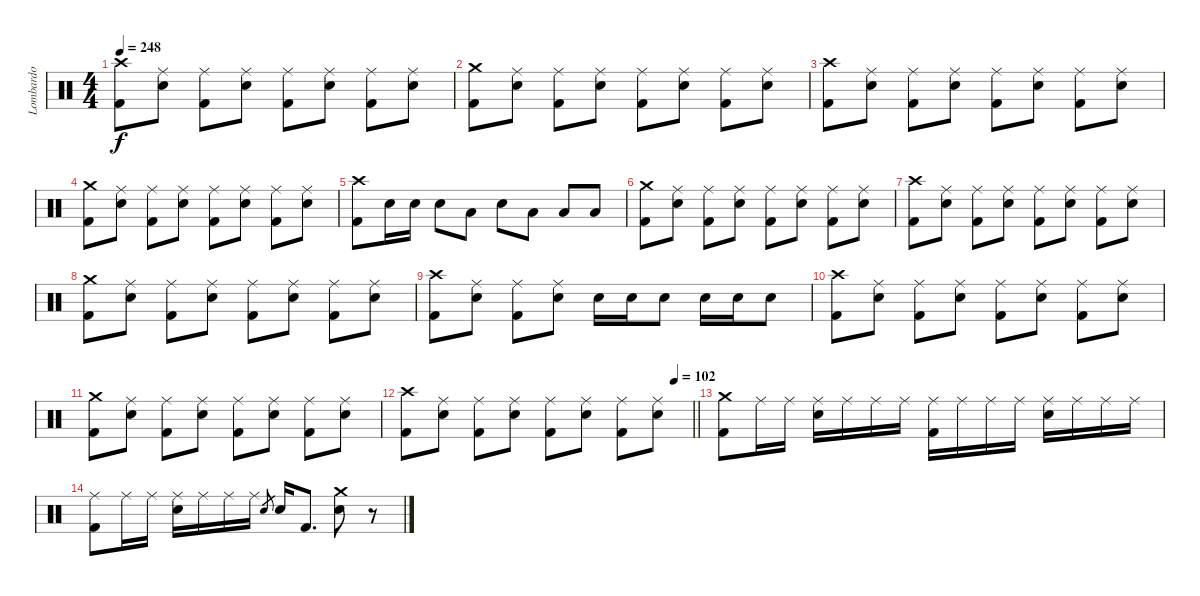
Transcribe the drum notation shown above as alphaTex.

\track ("Lombardo" "Lombardo") {instrument percussion}
\staff {score}
\articulation defaults
\ts (4 4)
\tempo 248
\clef neutral
\ks c
("Crash high (hit)" "Kick (hit) 2").8{dy f} ("Ride (middle)" "Snare (hit) 2").8 ("Ride (middle)" "Kick (hit) 2").8 ("Ride (middle)" "Snare (hit) 2").8 ("Ride (middle)" "Kick (hit) 2").8 ("Ride (middle)" "Snare (hit) 2").8 ("Ride (middle)" "Kick (hit) 2").8 ("Ride (middle)" "Snare (hit) 2").8 |
("Crash medium (hit)" "Kick (hit) 2").8 ("Ride (middle)" "Snare (hit) 2").8 ("Ride (middle)" "Kick (hit) 2").8 ("Ride (middle)" "Snare (hit) 2").8 ("Ride (middle)" "Kick (hit) 2").8 ("Ride (middle)" "Snare (hit) 2").8 ("Ride (middle)" "Kick (hit) 2").8 ("Ride (middle)" "Snare (hit) 2").8 |
("Crash high (hit)" "Kick (hit) 2").8 ("Ride (middle)" "Snare (hit) 2").8 ("Ride (middle)" "Kick (hit) 2").8 ("Ride (middle)" "Snare (hit) 2").8 ("Ride (middle)" "Kick (hit) 2").8 ("Ride (middle)" "Snare (hit) 2").8 ("Ride (middle)" "Kick (hit) 2").8 ("Ride (middle)" "Snare (hit) 2").8 |
("Crash medium (hit)" "Kick (hit) 2").8 ("Ride (middle)" "Snare (hit) 2").8 ("Ride (middle)" "Kick (hit) 2").8 ("Ride (middle)" "Snare (hit) 2").8 ("Ride (middle)" "Kick (hit) 2").8 ("Ride (middle)" "Snare (hit) 2").8 ("Ride (middle)" "Kick (hit) 2").8 ("Ride (middle)" "Snare (hit) 2").8 |
("Crash high (hit)" "Kick (hit) 2").8 "Snare (hit) 2".16 "Snare (hit) 2".16 "Snare (hit) 2".8 "Low Tom (hit)".8 "Snare (hit) 2".8 "Low Tom (hit)".8 "Low Tom (hit)".8 "Low Tom (hit)".8 |
("Crash medium (hit)" "Kick (hit) 2").8 ("Ride (middle)" "Snare (hit) 2").8 ("Ride (middle)" "Kick (hit) 2").8 ("Ride (middle)" "Snare (hit) 2").8 ("Ride (middle)" "Kick (hit) 2").8 ("Ride (middle)" "Snare (hit) 2").8 ("Ride (middle)" "Kick (hit) 2").8 ("Ride (middle)" "Snare (hit) 2").8 |
("Crash high (hit)" "Kick (hit) 2").8 ("Ride (middle)" "Snare (hit) 2").8 ("Ride (middle)" "Kick (hit) 2").8 ("Ride (middle)" "Snare (hit) 2").8 ("Ride (middle)" "Kick (hit) 2").8 ("Ride (middle)" "Snare (hit) 2").8 ("Ride (middle)" "Kick (hit) 2").8 ("Ride (middle)" "Snare (hit) 2").8 |
("Crash medium (hit)" "Kick (hit) 2").8 ("Ride (middle)" "Snare (hit) 2").8 ("Ride (middle)" "Kick (hit) 2").8 ("Ride (middle)" "Snare (hit) 2").8 ("Ride (middle)" "Kick (hit) 2").8 ("Ride (middle)" "Snare (hit) 2").8 ("Ride (middle)" "Kick (hit) 2").8 ("Ride (middle)" "Snare (hit) 2").8 |
("Crash high (hit)" "Kick (hit) 2").8 ("Ride (middle)" "Snare (hit) 2").8 ("Ride (middle)" "Kick (hit) 2").8 ("Ride (middle)" "Snare (hit) 2").8 "Snare (hit) 2".16 "Snare (hit) 2".16 "Snare (hit) 2".8 "Snare (hit) 2".16 "Snare (hit) 2".16 "Snare (hit) 2".8 |
("Crash high (hit)" "Kick (hit) 2").8 ("Ride (middle)" "Snare (hit) 2").8 ("Ride (middle)" "Kick (hit) 2").8 ("Ride (middle)" "Snare (hit) 2").8 ("Ride (middle)" "Kick (hit) 2").8 ("Ride (middle)" "Snare (hit) 2").8 ("Ride (middle)" "Kick (hit) 2").8 ("Ride (middle)" "Snare (hit) 2").8 |
("Crash medium (hit)" "Kick (hit) 2").8 ("Ride (middle)" "Snare (hit) 2").8 ("Ride (middle)" "Kick (hit) 2").8 ("Ride (middle)" "Snare (hit) 2").8 ("Ride (middle)" "Kick (hit) 2").8 ("Ride (middle)" "Snare (hit) 2").8 ("Ride (middle)" "Kick (hit) 2").8 ("Ride (middle)" "Snare (hit) 2").8 |
\tempo (102 0.9375)
\barLineRight lightlight
("Crash high (hit)" "Kick (hit) 2").8 ("Ride (middle)" "Snare (hit) 2").8 ("Ride (middle)" "Kick (hit) 2").8 ("Ride (middle)" "Snare (hit) 2").8 ("Ride (middle)" "Kick (hit) 2").8 ("Ride (middle)" "Snare (hit) 2").8 ("Ride (middle)" "Kick (hit) 2").8 ("Ride (middle)" "Snare (hit) 2").8 |
("Crash medium (hit)" "Kick (hit) 2").8 "Ride (middle)".16 "Ride (middle)".16 ("Ride (middle)" "Snare (hit) 2").16 "Ride (middle)".16 "Ride (middle)".16 "Ride (middle)".16 ("Ride (middle)" "Kick (hit) 2").16 "Ride (middle)".16 "Ride (middle)".16 "Ride (middle)".16 ("Ride (middle)" "Snare (hit) 2").16 "Ride (middle)".16 "Ride (middle)".16 "Ride (middle)".16 |
("Ride (middle)" "Kick (hit) 2").8 "Ride (middle)".16 "Ride (middle)".16 ("Ride (middle)" "Snare (hit) 2").16 "Ride (middle)".16 "Ride (middle)".16 "Ride (middle)".16 "Snare (hit) 2".8{gr} "Snare (hit) 2".16 "Kick (hit) 2".8{d} ("Crash medium (hit)" "Snare (hit) 2").8 r.8
